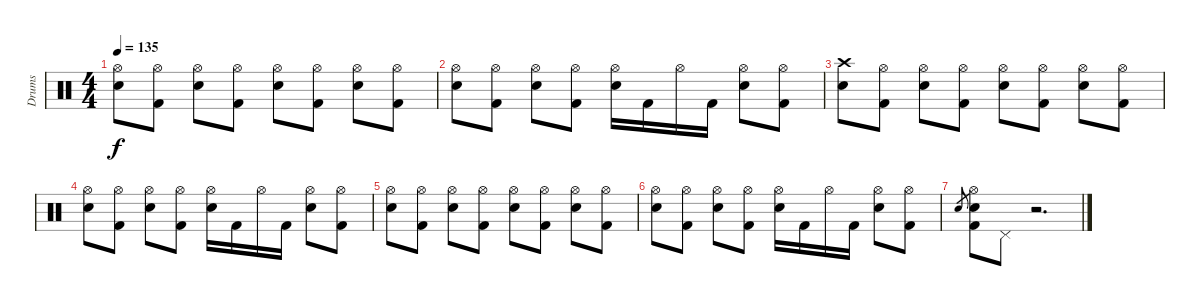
\track ("Drums" "Drums") {instrument percussion}
\staff {score}
\articulation defaults
\ts (4 4)
\tempo 135
\clef neutral
\ks c
("Hi-Hat (open)" "Snare (hit) 2").8{dy f} ("Hi-Hat (open)" "Kick (hit) 2").8 ("Hi-Hat (open)" "Snare (hit) 2").8 ("Hi-Hat (open)" "Kick (hit) 2").8 ("Hi-Hat (open)" "Snare (hit) 2").8 ("Hi-Hat (open)" "Kick (hit) 2").8 ("Hi-Hat (open)" "Snare (hit) 2").8 ("Hi-Hat (open)" "Kick (hit) 2").8 |
("Hi-Hat (open)" "Snare (hit) 2").8 ("Hi-Hat (open)" "Kick (hit) 2").8 ("Hi-Hat (open)" "Snare (hit) 2").8 ("Hi-Hat (open)" "Kick (hit) 2").8 ("Hi-Hat (open)" "Snare (hit) 2").16 "Kick (hit) 2".16 "Hi-Hat (open)".16 "Kick (hit) 2".16 ("Hi-Hat (open)" "Snare (hit) 2").8 ("Hi-Hat (open)" "Kick (hit) 2").8 |
("Crash high (hit)" "Snare (hit) 2").8 ("Hi-Hat (open)" "Kick (hit) 2").8 ("Hi-Hat (open)" "Snare (hit) 2").8 ("Hi-Hat (open)" "Kick (hit) 2").8 ("Hi-Hat (open)" "Snare (hit) 2").8 ("Hi-Hat (open)" "Kick (hit) 2").8 ("Hi-Hat (open)" "Snare (hit) 2").8 ("Hi-Hat (open)" "Kick (hit) 2").8 |
("Hi-Hat (open)" "Snare (hit) 2").8 ("Hi-Hat (open)" "Kick (hit) 2").8 ("Hi-Hat (open)" "Snare (hit) 2").8 ("Hi-Hat (open)" "Kick (hit) 2").8 ("Hi-Hat (open)" "Snare (hit) 2").16 "Kick (hit) 2".16 "Hi-Hat (open)".16 "Kick (hit) 2".16 ("Hi-Hat (open)" "Snare (hit) 2").8 ("Hi-Hat (open)" "Kick (hit) 2").8 |
("Hi-Hat (open)" "Snare (hit) 2").8 ("Hi-Hat (open)" "Kick (hit) 2").8 ("Hi-Hat (open)" "Snare (hit) 2").8 ("Hi-Hat (open)" "Kick (hit) 2").8 ("Hi-Hat (open)" "Snare (hit) 2").8 ("Hi-Hat (open)" "Kick (hit) 2").8 ("Hi-Hat (open)" "Snare (hit) 2").8 ("Hi-Hat (open)" "Kick (hit) 2").8 |
("Hi-Hat (open)" "Snare (hit) 2").8 ("Hi-Hat (open)" "Kick (hit) 2").8 ("Hi-Hat (open)" "Snare (hit) 2").8 ("Hi-Hat (open)" "Kick (hit) 2").8 ("Hi-Hat (open)" "Snare (hit) 2").16 "Kick (hit) 2".16 "Hi-Hat (open)".16 "Kick (hit) 2".16 ("Hi-Hat (open)" "Snare (hit) 2").8 ("Hi-Hat (open)" "Kick (hit) 2").8 |
"Snare (hit) 2".8{gr} ("Hi-Hat (open)" "Snare (hit) 2" "Kick (hit) 2").8 "Pedal Hi-Hat (hit)".8 r.2{d}
